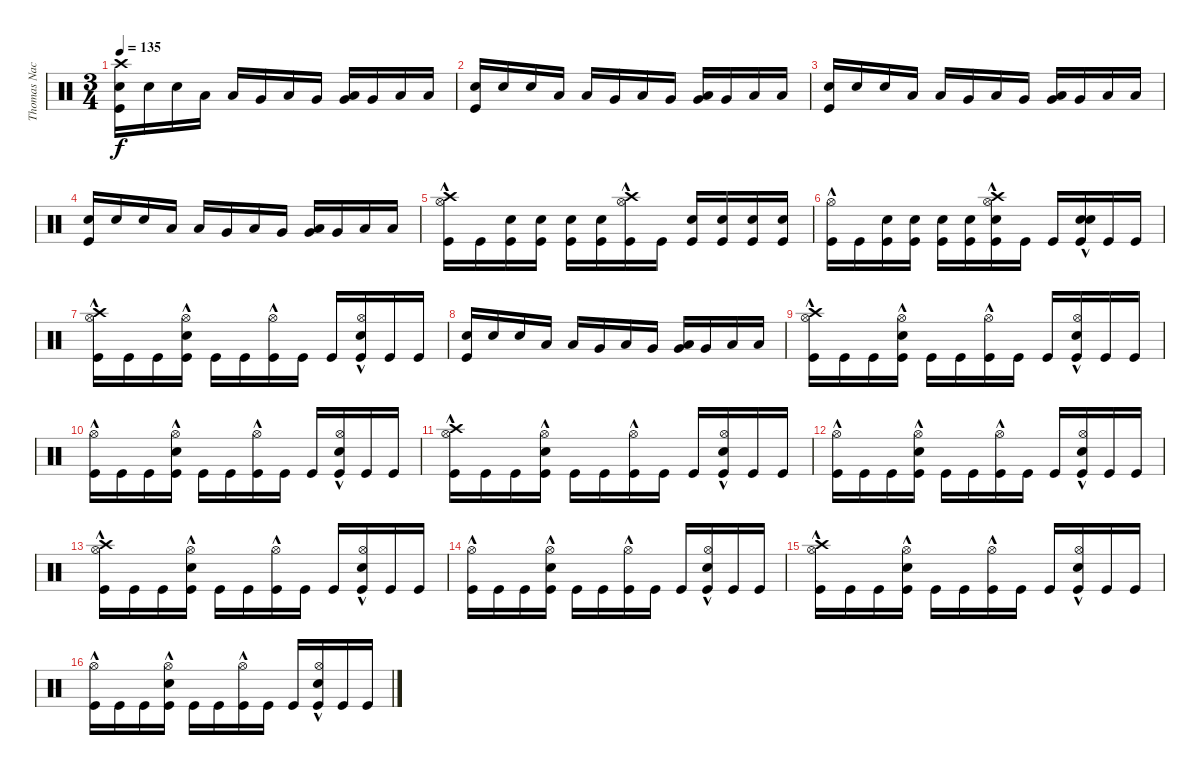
\track ("Thomas Nack" "Thomas Nac") {instrument percussion}
\staff {score}
\articulation defaults
\ts (3 4)
\tempo 135
\clef neutral
\ks c
("Crash high (hit)" "Snare (hit) 2" "Kick (hit)").16{dy f} "Snare (hit) 2".16 "Snare (hit) 2".16 "Low Tom (hit)".16 "Low Tom (hit)".16 "Very Low Tom (hit)".16 "Low Tom (hit)".16 "Very Low Tom (hit)".16 ("Very Low Tom (hit)" "Low Floor Tom (hit)").16 "Very Low Tom (hit)".16 "Low Floor Tom (hit)".16 "Low Floor Tom (hit)".16 |
("Snare (hit) 2" "Kick (hit)").16 "Snare (hit) 2".16 "Snare (hit) 2".16 "Low Tom (hit)".16 "Low Tom (hit)".16 "Very Low Tom (hit)".16 "Low Tom (hit)".16 "Very Low Tom (hit)".16 ("Very Low Tom (hit)" "Low Floor Tom (hit)").16 "Very Low Tom (hit)".16 "Low Floor Tom (hit)".16 "Low Floor Tom (hit)".16 |
("Snare (hit) 2" "Kick (hit)").16 "Snare (hit) 2".16 "Snare (hit) 2".16 "Low Tom (hit)".16 "Low Tom (hit)".16 "Very Low Tom (hit)".16 "Low Tom (hit)".16 "Very Low Tom (hit)".16 ("Very Low Tom (hit)" "Low Floor Tom (hit)").16 "Very Low Tom (hit)".16 "Low Floor Tom (hit)".16 "Low Floor Tom (hit)".16 |
("Snare (hit) 2" "Kick (hit)").16 "Snare (hit) 2".16 "Snare (hit) 2".16 "Low Tom (hit)".16 "Low Tom (hit)".16 "Very Low Tom (hit)".16 "Low Tom (hit)".16 "Very Low Tom (hit)".16 ("Very Low Tom (hit)" "Low Floor Tom (hit)").16 "Very Low Tom (hit)".16 "Low Floor Tom (hit)".16 "Low Floor Tom (hit)".16 |
("Crash high (hit)" "Hi-Hat (open)"{hac} "Kick (hit)").16 "Kick (hit)".16 ("Electric Snare (hit)" "Kick (hit)").16 ("Electric Snare (hit)" "Kick (hit)").16 ("Electric Snare (hit)" "Kick (hit)").16 ("Electric Snare (hit)" "Kick (hit)").16 ("Crash high (hit)" "Hi-Hat (open)"{hac} "Kick (hit)").16 "Kick (hit)".16 ("Electric Snare (hit)" "Kick (hit)").16 ("Electric Snare (hit)" "Kick (hit)").16 ("Electric Snare (hit)" "Kick (hit)").16 ("Electric Snare (hit)" "Kick (hit)").16 |
("Hi-Hat (open)"{hac} "Kick (hit)").16 "Kick (hit)".16 ("Electric Snare (hit)" "Kick (hit)").16 ("Electric Snare (hit)" "Kick (hit)").16 ("Electric Snare (hit)" "Kick (hit)").16 ("Electric Snare (hit)" "Kick (hit)").16 ("Crash high (hit)"{hac} "Snare (hit) 2"{hac} "Hi-Hat (open)"{hac} "Kick (hit)").16 "Kick (hit)".16 "Kick (hit)".16 ("Snare (hit) 2"{hac} "Kick (hit)" "Electric Snare (hit)").16 "Kick (hit)".16 "Kick (hit)".16 |
("Crash high (hit)" "Hi-Hat (open)"{hac} "Kick (hit)").16 "Kick (hit)".16 "Kick (hit)".16 ("Hi-Hat (open)"{hac} "Kick (hit)" "Electric Snare (hit)").16 "Kick (hit)".16 "Kick (hit)".16 ("Hi-Hat (open)"{hac} "Kick (hit)").16 "Kick (hit)".16 "Kick (hit)".16 ("Hi-Hat (open)"{hac} "Kick (hit)" "Electric Snare (hit)").16 "Kick (hit)".16 "Kick (hit)".16 |
("Snare (hit) 2" "Kick (hit)").16 "Snare (hit) 2".16 "Snare (hit) 2".16 "Low Tom (hit)".16 "Low Tom (hit)".16 "Very Low Tom (hit)".16 "Low Tom (hit)".16 "Very Low Tom (hit)".16 ("Very Low Tom (hit)" "Low Floor Tom (hit)").16 "Very Low Tom (hit)".16 "Low Floor Tom (hit)".16 "Low Floor Tom (hit)".16 |
("Crash high (hit)" "Hi-Hat (open)"{hac} "Kick (hit)").16 "Kick (hit)".16 "Kick (hit)".16 ("Hi-Hat (open)"{hac} "Kick (hit)" "Electric Snare (hit)").16 "Kick (hit)".16 "Kick (hit)".16 ("Hi-Hat (open)"{hac} "Kick (hit)").16 "Kick (hit)".16 "Kick (hit)".16 ("Hi-Hat (open)"{hac} "Kick (hit)" "Electric Snare (hit)").16 "Kick (hit)".16 "Kick (hit)".16 |
("Hi-Hat (open)"{hac} "Kick (hit)").16 "Kick (hit)".16 "Kick (hit)".16 ("Hi-Hat (open)"{hac} "Kick (hit)" "Electric Snare (hit)").16 "Kick (hit)".16 "Kick (hit)".16 ("Hi-Hat (open)"{hac} "Kick (hit)").16 "Kick (hit)".16 "Kick (hit)".16 ("Hi-Hat (open)"{hac} "Kick (hit)" "Electric Snare (hit)").16 "Kick (hit)".16 "Kick (hit)".16 |
("Crash high (hit)" "Hi-Hat (open)"{hac} "Kick (hit)").16 "Kick (hit)".16 "Kick (hit)".16 ("Hi-Hat (open)"{hac} "Kick (hit)" "Electric Snare (hit)").16 "Kick (hit)".16 "Kick (hit)".16 ("Hi-Hat (open)"{hac} "Kick (hit)").16 "Kick (hit)".16 "Kick (hit)".16 ("Hi-Hat (open)"{hac} "Kick (hit)" "Electric Snare (hit)").16 "Kick (hit)".16 "Kick (hit)".16 |
("Hi-Hat (open)"{hac} "Kick (hit)").16 "Kick (hit)".16 "Kick (hit)".16 ("Hi-Hat (open)"{hac} "Kick (hit)" "Electric Snare (hit)").16 "Kick (hit)".16 "Kick (hit)".16 ("Hi-Hat (open)"{hac} "Kick (hit)").16 "Kick (hit)".16 "Kick (hit)".16 ("Hi-Hat (open)"{hac} "Kick (hit)" "Electric Snare (hit)").16 "Kick (hit)".16 "Kick (hit)".16 |
("Crash high (hit)" "Hi-Hat (open)"{hac} "Kick (hit)").16 "Kick (hit)".16 "Kick (hit)".16 ("Hi-Hat (open)"{hac} "Kick (hit)" "Electric Snare (hit)").16 "Kick (hit)".16 "Kick (hit)".16 ("Hi-Hat (open)"{hac} "Kick (hit)").16 "Kick (hit)".16 "Kick (hit)".16 ("Hi-Hat (open)"{hac} "Kick (hit)" "Electric Snare (hit)").16 "Kick (hit)".16 "Kick (hit)".16 |
("Hi-Hat (open)"{hac} "Kick (hit)").16 "Kick (hit)".16 "Kick (hit)".16 ("Hi-Hat (open)"{hac} "Kick (hit)" "Electric Snare (hit)").16 "Kick (hit)".16 "Kick (hit)".16 ("Hi-Hat (open)"{hac} "Kick (hit)").16 "Kick (hit)".16 "Kick (hit)".16 ("Hi-Hat (open)"{hac} "Kick (hit)" "Electric Snare (hit)").16 "Kick (hit)".16 "Kick (hit)".16 |
("Crash high (hit)" "Hi-Hat (open)"{hac} "Kick (hit)").16 "Kick (hit)".16 "Kick (hit)".16 ("Hi-Hat (open)"{hac} "Kick (hit)" "Electric Snare (hit)").16 "Kick (hit)".16 "Kick (hit)".16 ("Hi-Hat (open)"{hac} "Kick (hit)").16 "Kick (hit)".16 "Kick (hit)".16 ("Hi-Hat (open)"{hac} "Kick (hit)" "Electric Snare (hit)").16 "Kick (hit)".16 "Kick (hit)".16 |
("Hi-Hat (open)"{hac} "Kick (hit)").16 "Kick (hit)".16 "Kick (hit)".16 ("Hi-Hat (open)"{hac} "Kick (hit)" "Electric Snare (hit)").16 "Kick (hit)".16 "Kick (hit)".16 ("Hi-Hat (open)"{hac} "Kick (hit)").16 "Kick (hit)".16 "Kick (hit)".16 ("Hi-Hat (open)"{hac} "Kick (hit)" "Electric Snare (hit)").16 "Kick (hit)".16 "Kick (hit)".16
